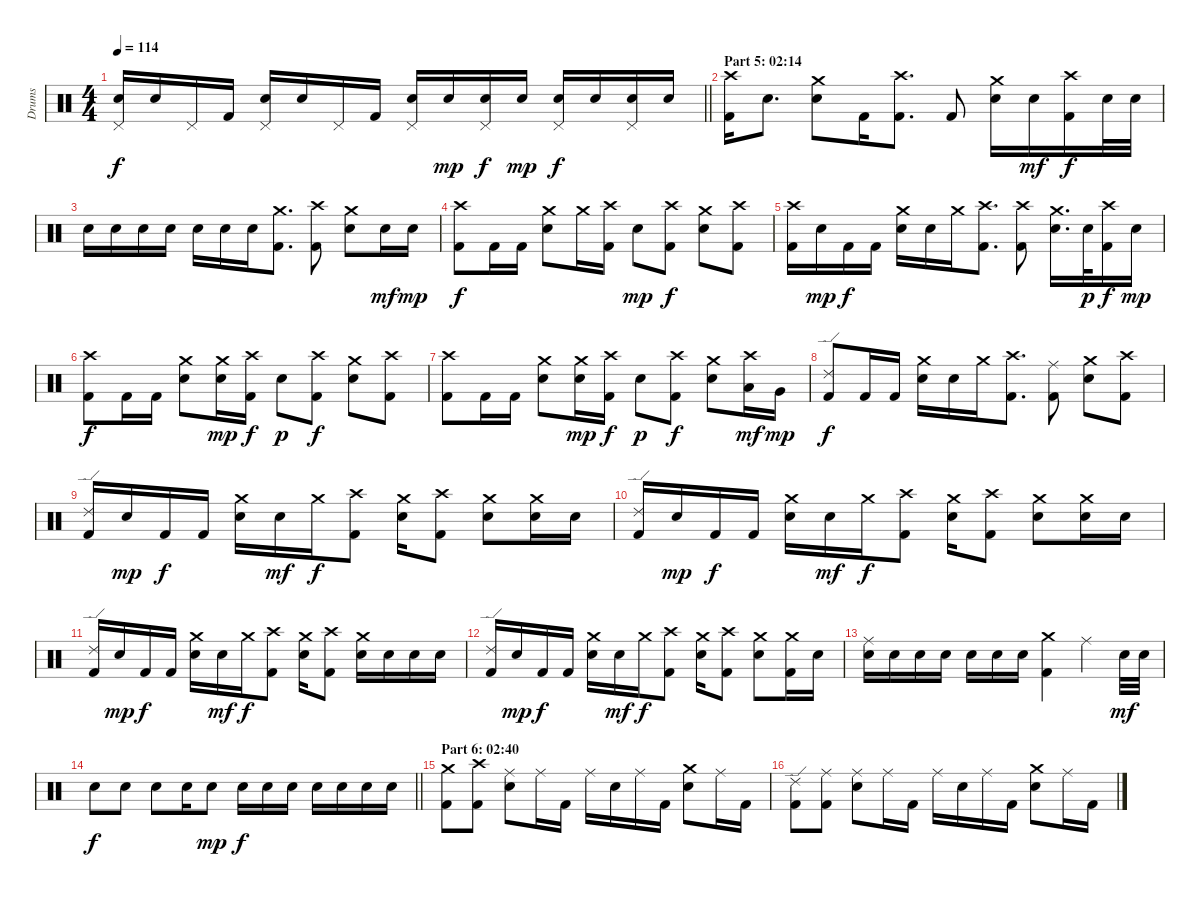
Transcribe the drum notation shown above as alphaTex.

\track ("Drums" "Drums") {instrument percussion}
\staff {score}
\articulation defaults
\ts (4 4)
\tempo 114
\clef neutral
\barLineRight lightlight
\ks c
("Pedal Hi-Hat (hit)" "Electric Snare (hit)").16{dy f} "Electric Snare (hit)".16 "Pedal Hi-Hat (hit)".16 "Kick (hit) 2".16 ("Pedal Hi-Hat (hit)" "Electric Snare (hit)").16 "Electric Snare (hit)".16 "Pedal Hi-Hat (hit)".16 "Kick (hit) 2".16 ("Pedal Hi-Hat (hit)" "Electric Snare (hit)").16 "Electric Snare (hit)".16{dy mp} ("Pedal Hi-Hat (hit)" "Electric Snare (hit)").16{dy f} "Electric Snare (hit)".16{dy mp} ("Pedal Hi-Hat (hit)" "Electric Snare (hit)").16{dy f} "Electric Snare (hit)".16 ("Pedal Hi-Hat (hit)" "Electric Snare (hit)").16 "Electric Snare (hit)".16 |
\section ("" "Part 5: 02:14")
("Crash high (hit)" "Kick (hit) 2").16 "Electric Snare (hit)".8{d} ("Crash medium (hit)" "Electric Snare (hit)").8 "Kick (hit) 2".16 ("Crash high (hit)" "Kick (hit) 2").8{d} "Kick (hit) 2".8 ("Crash medium (hit)" "Electric Snare (hit)").16 "Electric Snare (hit)".16{dy mf} ("Crash high (hit)" "Kick (hit) 2").16{dy f} "Electric Snare (hit)".32 "Electric Snare (hit)".32 |
"Electric Snare (hit)".16 "Electric Snare (hit)".16 "Electric Snare (hit)".16 "Electric Snare (hit)".16 "Electric Snare (hit)".16 "Electric Snare (hit)".16 "Electric Snare (hit)".16 ("Crash medium (hit)" "Kick (hit) 2").8{d} ("Crash high (hit)" "Kick (hit) 2").8 ("Crash medium (hit)" "Electric Snare (hit)").8 "Electric Snare (hit)".16{dy mf} "Electric Snare (hit)".16{dy mp} |
("Crash high (hit)" "Kick (hit) 2").8{dy f} "Kick (hit) 2".16 "Kick (hit) 2".16 ("Crash medium (hit)" "Electric Snare (hit)").8 "Crash medium (hit)".16 ("Crash high (hit)" "Kick (hit) 2").16 "Electric Snare (hit)".8{dy mp} ("Crash high (hit)" "Kick (hit) 2").8{dy f} ("Crash medium (hit)" "Electric Snare (hit)").8 ("Crash high (hit)" "Kick (hit) 2").8 |
("Crash high (hit)" "Kick (hit) 2").16 "Electric Snare (hit)".16{dy mp} "Kick (hit) 2".16{dy f} "Kick (hit) 2".16 ("Crash medium (hit)" "Electric Snare (hit)").16 "Electric Snare (hit)".16 "Crash medium (hit)".16 ("Crash high (hit)" "Kick (hit) 2").8{d} ("Crash high (hit)" "Kick (hit) 2").8 ("Crash medium (hit)" "Electric Snare (hit)").16{d} "Electric Snare (hit)".32{dy p} ("Crash high (hit)" "Kick (hit) 2").16{dy f} "Electric Snare (hit)".16{dy mp} |
("Crash high (hit)" "Kick (hit) 2").8{dy f} "Kick (hit) 2".16 "Kick (hit) 2".16 ("Crash medium (hit)" "Electric Snare (hit)").8 ("Crash medium (hit)" "Electric Snare (hit)").16{dy mp} ("Crash high (hit)" "Kick (hit) 2").16{dy f} "Electric Snare (hit)".8{dy p} ("Crash high (hit)" "Kick (hit) 2").8{dy f} ("Crash medium (hit)" "Electric Snare (hit)").8 ("Crash high (hit)" "Kick (hit) 2").8 |
("Crash high (hit)" "Kick (hit) 2").8 "Kick (hit) 2".16 "Kick (hit) 2".16 ("Crash medium (hit)" "Electric Snare (hit)").8 ("Crash medium (hit)" "Electric Snare (hit)").16{dy mp} ("Crash high (hit)" "Kick (hit) 2").16{dy f} "Electric Snare (hit)".8{dy p} ("Crash high (hit)" "Kick (hit) 2").8{dy f} ("Crash medium (hit)" "Electric Snare (hit)").8 ("Crash high (hit)" "Low Tom (hit)").16{dy mf} "Very Low Tom (hit)".16{dy mp} |
("Ride (edge) 2" "Kick (hit) 2").8{dy f} "Kick (hit) 2".16 "Kick (hit) 2".16 ("Crash medium (hit)" "Electric Snare (hit)").16 "Electric Snare (hit)".16 "Crash medium (hit)".16 ("Crash high (hit)" "Kick (hit) 2").8{d} ("Ride (middle)" "Kick (hit) 2").8 ("Crash medium (hit)" "Electric Snare (hit)").8 ("Crash high (hit)" "Kick (hit) 2").8 |
("Ride (edge) 2" "Kick (hit) 2").16 "Electric Snare (hit)".16{dy mp} "Kick (hit) 2".16{dy f} "Kick (hit) 2".16 ("Crash medium (hit)" "Electric Snare (hit)").16 "Electric Snare (hit)".16{dy mf} "Crash medium (hit)".16{dy f} ("Crash high (hit)" "Kick (hit) 2").8 ("Crash medium (hit)" "Electric Snare (hit)").16 ("Crash high (hit)" "Kick (hit) 2").8 ("Crash medium (hit)" "Electric Snare (hit)").8 ("Crash medium (hit)" "Electric Snare (hit)").16 "Electric Snare (hit)".16 |
("Ride (edge) 2" "Kick (hit) 2").16 "Electric Snare (hit)".16{dy mp} "Kick (hit) 2".16{dy f} "Kick (hit) 2".16 ("Crash medium (hit)" "Electric Snare (hit)").16 "Electric Snare (hit)".16{dy mf} "Crash medium (hit)".16{dy f} ("Crash high (hit)" "Kick (hit) 2").8 ("Crash medium (hit)" "Electric Snare (hit)").16 ("Crash high (hit)" "Kick (hit) 2").8 ("Crash medium (hit)" "Electric Snare (hit)").8 ("Crash medium (hit)" "Electric Snare (hit)").16 "Electric Snare (hit)".16 |
("Ride (edge) 2" "Kick (hit) 2").16 "Electric Snare (hit)".16{dy mp} "Kick (hit) 2".16{dy f} "Kick (hit) 2".16 ("Crash medium (hit)" "Electric Snare (hit)").16 "Electric Snare (hit)".16{dy mf} "Crash medium (hit)".16{dy f} ("Crash high (hit)" "Kick (hit) 2").8 ("Crash medium (hit)" "Electric Snare (hit)").16 ("Crash high (hit)" "Kick (hit) 2").8 ("Crash medium (hit)" "Electric Snare (hit)").16 "Electric Snare (hit)".16 "Electric Snare (hit)".16 "Electric Snare (hit)".16 |
("Ride (edge) 2" "Kick (hit) 2").16 "Electric Snare (hit)".16{dy mp} "Kick (hit) 2".16{dy f} "Kick (hit) 2".16 ("Crash medium (hit)" "Electric Snare (hit)").16 "Electric Snare (hit)".16{dy mf} "Crash medium (hit)".16{dy f} ("Crash high (hit)" "Kick (hit) 2").8 ("Crash medium (hit)" "Electric Snare (hit)").16 ("Crash high (hit)" "Kick (hit) 2").8 ("Crash medium (hit)" "Electric Snare (hit)").8 ("Crash medium (hit)" "Kick (hit) 2").16 "Electric Snare (hit)".16 |
("Ride (middle)" "Electric Snare (hit)").16 "Electric Snare (hit)".16 "Electric Snare (hit)".16 "Electric Snare (hit)".16 "Electric Snare (hit)".16 "Electric Snare (hit)".16 "Electric Snare (hit)".16 ("Crash medium (hit)" "Kick (hit) 2").4 "Ride (middle)".4 "Electric Snare (hit)".32{dy mf} "Electric Snare (hit)".32 |
\barLineRight lightlight "Electric Snare (hit)".8{dy f} "Electric Snare (hit)".8 "Electric Snare (hit)".8 "Electric Snare (hit)".16 "Electric Snare (hit)".8{dy mp} "Electric Snare (hit)".16{dy f} "Electric Snare (hit)".16 "Electric Snare (hit)".16 "Electric Snare (hit)".16 "Electric Snare (hit)".16 "Electric Snare (hit)".16 "Electric Snare (hit)".16
|
\section ("" "Part 6: 02:40")
("Crash medium (hit)" "Kick (hit) 2").8 ("Crash high (hit)" "Kick (hit) 2").8 ("Ride (middle)" "Electric Snare (hit)").8 "Ride (middle)".16 "Kick (hit) 2".16 "Ride (middle)".16 "Electric Snare (hit)".16 "Ride (middle)".16 "Kick (hit) 2".16 ("Crash medium (hit)" "Electric Snare (hit)").8 "Ride (middle)".16 "Kick (hit) 2".16 |
("Ride (edge) 2" "Kick (hit) 2").8 ("Ride (middle)" "Kick (hit) 2").8 ("Ride (middle)" "Electric Snare (hit)").8 "Ride (middle)".16 "Kick (hit) 2".16 "Ride (middle)".16 "Electric Snare (hit)".16 "Ride (middle)".16 "Kick (hit) 2".16 ("Crash medium (hit)" "Electric Snare (hit)").8 "Ride (middle)".16 "Kick (hit) 2".16
